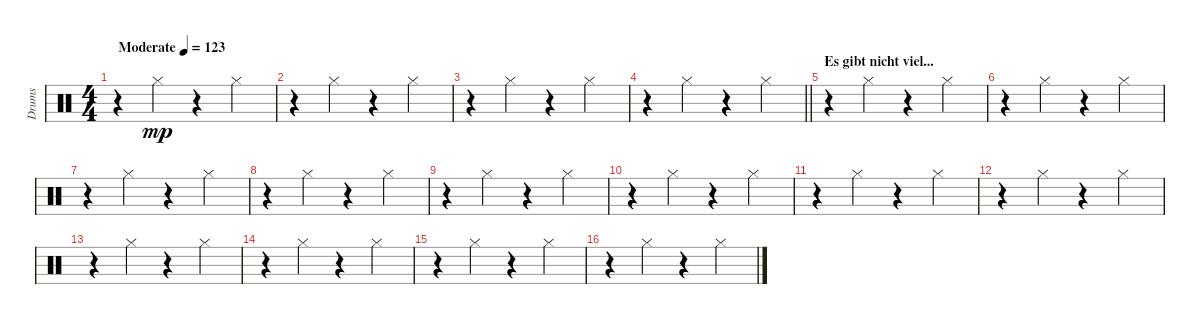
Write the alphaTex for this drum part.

\track ("Drums" "Drums") {instrument percussion}
\staff {score}
\articulation defaults
\ts (4 4)
\tempo (123 "Moderate")
\clef neutral
\ks c
r.4{dy mp} "Hi-Hat (closed)".4 r.4 "Hi-Hat (closed)".4 |
r.4 "Hi-Hat (closed)".4 r.4 "Hi-Hat (closed)".4 |
r.4 "Hi-Hat (closed)".4 r.4 "Hi-Hat (closed)".4 |
\barLineRight lightlight
r.4 "Hi-Hat (closed)".4 r.4 "Hi-Hat (closed)".4 |
\section ("" "Es gibt nicht viel...")
r.4 "Hi-Hat (closed)".4 r.4 "Hi-Hat (closed)".4 |
r.4 "Hi-Hat (closed)".4 r.4 "Hi-Hat (closed)".4 |
r.4 "Hi-Hat (closed)".4 r.4 "Hi-Hat (closed)".4 |
r.4 "Hi-Hat (closed)".4 r.4 "Hi-Hat (closed)".4 |
r.4 "Hi-Hat (closed)".4 r.4 "Hi-Hat (closed)".4 |
r.4 "Hi-Hat (closed)".4 r.4 "Hi-Hat (closed)".4 |
r.4 "Hi-Hat (closed)".4 r.4 "Hi-Hat (closed)".4 |
r.4 "Hi-Hat (closed)".4 r.4 "Hi-Hat (closed)".4 |
r.4 "Hi-Hat (closed)".4 r.4 "Hi-Hat (closed)".4 |
r.4 "Hi-Hat (closed)".4 r.4 "Hi-Hat (closed)".4 |
r.4 "Hi-Hat (closed)".4 r.4 "Hi-Hat (closed)".4 |
r.4 "Hi-Hat (closed)".4 r.4 "Hi-Hat (closed)".4
